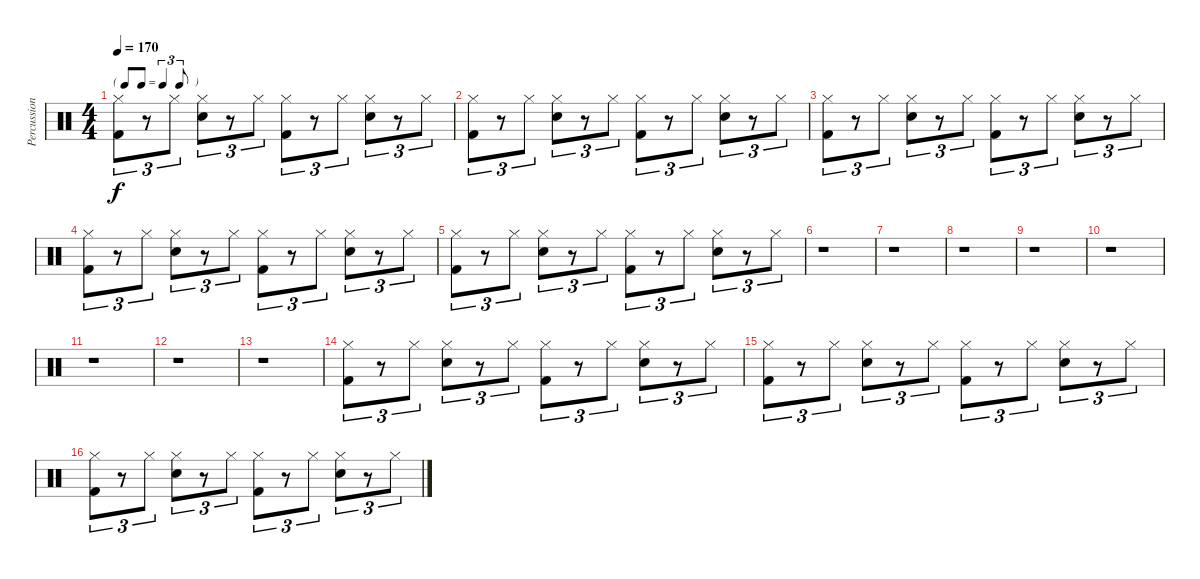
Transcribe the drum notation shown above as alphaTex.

\track ("Percussion" "Percussion") {instrument percussion}
\staff {score}
\articulation defaults
\ts (4 4)
\tf triplet8th
\tempo 170
\clef neutral
\ks c
("Hi-Hat (closed)" "Kick (hit) 2").8{tu (3 2) dy f} r.8{tu (3 2)} "Hi-Hat (closed)".8{tu (3 2)} ("Hi-Hat (closed)" "Snare (hit) 2").8{tu (3 2)} r.8{tu (3 2)} "Hi-Hat (closed)".8{tu (3 2)} ("Hi-Hat (closed)" "Kick (hit) 2").8{tu (3 2)} r.8{tu (3 2)} "Hi-Hat (closed)".8{tu (3 2)} ("Hi-Hat (closed)" "Snare (hit) 2").8{tu (3 2)} r.8{tu (3 2)} "Hi-Hat (closed)".8{tu (3 2)} |
("Hi-Hat (closed)" "Kick (hit) 2").8{tu (3 2)} r.8{tu (3 2)} "Hi-Hat (closed)".8{tu (3 2)} ("Hi-Hat (closed)" "Snare (hit) 2").8{tu (3 2)} r.8{tu (3 2)} "Hi-Hat (closed)".8{tu (3 2)} ("Hi-Hat (closed)" "Kick (hit) 2").8{tu (3 2)} r.8{tu (3 2)} "Hi-Hat (closed)".8{tu (3 2)} ("Hi-Hat (closed)" "Snare (hit) 2").8{tu (3 2)} r.8{tu (3 2)} "Hi-Hat (closed)".8{tu (3 2)} |
("Hi-Hat (closed)" "Kick (hit) 2").8{tu (3 2)} r.8{tu (3 2)} "Hi-Hat (closed)".8{tu (3 2)} ("Hi-Hat (closed)" "Snare (hit) 2").8{tu (3 2)} r.8{tu (3 2)} "Hi-Hat (closed)".8{tu (3 2)} ("Hi-Hat (closed)" "Kick (hit) 2").8{tu (3 2)} r.8{tu (3 2)} "Hi-Hat (closed)".8{tu (3 2)} ("Hi-Hat (closed)" "Snare (hit) 2").8{tu (3 2)} r.8{tu (3 2)} "Hi-Hat (closed)".8{tu (3 2)} |
("Hi-Hat (closed)" "Kick (hit) 2").8{tu (3 2)} r.8{tu (3 2)} "Hi-Hat (closed)".8{tu (3 2)} ("Hi-Hat (closed)" "Snare (hit) 2").8{tu (3 2)} r.8{tu (3 2)} "Hi-Hat (closed)".8{tu (3 2)} ("Hi-Hat (closed)" "Kick (hit) 2").8{tu (3 2)} r.8{tu (3 2)} "Hi-Hat (closed)".8{tu (3 2)} ("Hi-Hat (closed)" "Snare (hit) 2").8{tu (3 2)} r.8{tu (3 2)} "Hi-Hat (closed)".8{tu (3 2)} |
("Hi-Hat (closed)" "Kick (hit) 2").8{tu (3 2)} r.8{tu (3 2)} "Hi-Hat (closed)".8{tu (3 2)} ("Hi-Hat (closed)" "Snare (hit) 2").8{tu (3 2)} r.8{tu (3 2)} "Hi-Hat (closed)".8{tu (3 2)} ("Hi-Hat (closed)" "Kick (hit) 2").8{tu (3 2)} r.8{tu (3 2)} "Hi-Hat (closed)".8{tu (3 2)} ("Hi-Hat (closed)" "Snare (hit) 2").8{tu (3 2)} r.8{tu (3 2)} "Hi-Hat (closed)".8{tu (3 2)} |
r.1 |
r.1 |
r.1 |
r.1 |
r.1 |
r.1 |
r.1 |
r.1 |
("Hi-Hat (closed)" "Kick (hit) 2").8{tu (3 2)} r.8{tu (3 2)} "Hi-Hat (closed)".8{tu (3 2)} ("Hi-Hat (closed)" "Snare (hit) 2").8{tu (3 2)} r.8{tu (3 2)} "Hi-Hat (closed)".8{tu (3 2)} ("Hi-Hat (closed)" "Kick (hit) 2").8{tu (3 2)} r.8{tu (3 2)} "Hi-Hat (closed)".8{tu (3 2)} ("Hi-Hat (closed)" "Snare (hit) 2").8{tu (3 2)} r.8{tu (3 2)} "Hi-Hat (closed)".8{tu (3 2)} |
("Hi-Hat (closed)" "Kick (hit) 2").8{tu (3 2)} r.8{tu (3 2)} "Hi-Hat (closed)".8{tu (3 2)} ("Hi-Hat (closed)" "Snare (hit) 2").8{tu (3 2)} r.8{tu (3 2)} "Hi-Hat (closed)".8{tu (3 2)} ("Hi-Hat (closed)" "Kick (hit) 2").8{tu (3 2)} r.8{tu (3 2)} "Hi-Hat (closed)".8{tu (3 2)} ("Hi-Hat (closed)" "Snare (hit) 2").8{tu (3 2)} r.8{tu (3 2)} "Hi-Hat (closed)".8{tu (3 2)} |
("Hi-Hat (closed)" "Kick (hit) 2").8{tu (3 2)} r.8{tu (3 2)} "Hi-Hat (closed)".8{tu (3 2)} ("Hi-Hat (closed)" "Snare (hit) 2").8{tu (3 2)} r.8{tu (3 2)} "Hi-Hat (closed)".8{tu (3 2)} ("Hi-Hat (closed)" "Kick (hit) 2").8{tu (3 2)} r.8{tu (3 2)} "Hi-Hat (closed)".8{tu (3 2)} ("Hi-Hat (closed)" "Snare (hit) 2").8{tu (3 2)} r.8{tu (3 2)} "Hi-Hat (closed)".8{tu (3 2)}
